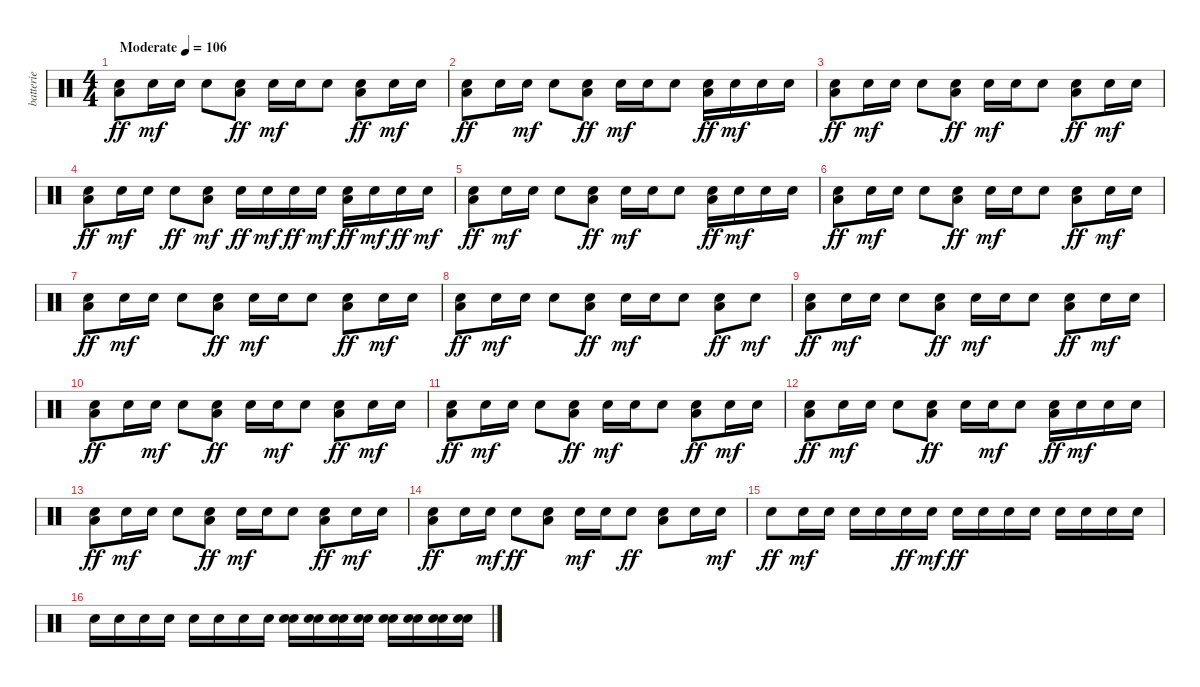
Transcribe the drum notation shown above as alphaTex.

\track ("batterie" "batterie") {instrument percussion}
\staff {score}
\articulation defaults
\ts (4 4)
\tempo (106 "Moderate")
\clef neutral
\ks c
("Electric Snare (hit)" "Low Floor Tom (hit)").8{dy ff} "Electric Snare (hit)".16{dy mf} "Electric Snare (hit)".16 "Electric Snare (hit)".8 ("Electric Snare (hit)" "Low Floor Tom (hit)").8{dy ff} "Electric Snare (hit)".16{dy mf} "Electric Snare (hit)".16 "Electric Snare (hit)".8 ("Electric Snare (hit)" "Low Floor Tom (hit)").8{dy ff} "Electric Snare (hit)".16{dy mf} "Electric Snare (hit)".16 |
("Electric Snare (hit)" "Low Floor Tom (hit)").8{dy ff} "Electric Snare (hit)".16 "Electric Snare (hit)".16{dy mf} "Electric Snare (hit)".8 ("Electric Snare (hit)" "Low Floor Tom (hit)").8{dy ff} "Electric Snare (hit)".16{dy mf} "Electric Snare (hit)".16 "Electric Snare (hit)".8 ("Electric Snare (hit)" "Low Floor Tom (hit)").16{dy ff} "Electric Snare (hit)".16{dy mf} "Electric Snare (hit)".16 "Electric Snare (hit)".16 |
("Electric Snare (hit)" "Low Floor Tom (hit)").8{dy ff} "Electric Snare (hit)".16{dy mf} "Electric Snare (hit)".16 "Electric Snare (hit)".8 ("Electric Snare (hit)" "Low Floor Tom (hit)").8{dy ff} "Electric Snare (hit)".16{dy mf} "Electric Snare (hit)".16 "Electric Snare (hit)".8 ("Electric Snare (hit)" "Low Floor Tom (hit)").8{dy ff} "Electric Snare (hit)".16{dy mf} "Electric Snare (hit)".16 |
("Electric Snare (hit)" "Low Floor Tom (hit)").8{dy ff} "Electric Snare (hit)".16{dy mf} "Electric Snare (hit)".16 "Electric Snare (hit)".8{dy ff} ("Electric Snare (hit)" "Low Floor Tom (hit)").8{dy mf} "Electric Snare (hit)".16{dy ff} "Electric Snare (hit)".16{dy mf} "Electric Snare (hit)".16{dy ff} "Electric Snare (hit)".16{dy mf} ("Electric Snare (hit)" "Low Floor Tom (hit)").16{dy ff} "Electric Snare (hit)".16{dy mf} "Electric Snare (hit)".16{dy ff} "Electric Snare (hit)".16{dy mf} |
("Electric Snare (hit)" "Low Floor Tom (hit)").8{dy ff} "Electric Snare (hit)".16{dy mf} "Electric Snare (hit)".16 "Electric Snare (hit)".8 ("Electric Snare (hit)" "Low Floor Tom (hit)").8{dy ff} "Electric Snare (hit)".16{dy mf} "Electric Snare (hit)".16 "Electric Snare (hit)".8 ("Electric Snare (hit)" "Low Floor Tom (hit)").16{dy ff} "Electric Snare (hit)".16{dy mf} "Electric Snare (hit)".16 "Electric Snare (hit)".16 |
("Electric Snare (hit)" "Low Floor Tom (hit)").8{dy ff} "Electric Snare (hit)".16{dy mf} "Electric Snare (hit)".16 "Electric Snare (hit)".8 ("Electric Snare (hit)" "Low Floor Tom (hit)").8{dy ff} "Electric Snare (hit)".16{dy mf} "Electric Snare (hit)".16 "Electric Snare (hit)".8 ("Electric Snare (hit)" "Low Floor Tom (hit)").8{dy ff} "Electric Snare (hit)".16{dy mf} "Electric Snare (hit)".16 |
("Electric Snare (hit)" "Low Floor Tom (hit)").8{dy ff} "Electric Snare (hit)".16{dy mf} "Electric Snare (hit)".16 "Electric Snare (hit)".8 ("Electric Snare (hit)" "Low Floor Tom (hit)").8{dy ff} "Electric Snare (hit)".16{dy mf} "Electric Snare (hit)".16 "Electric Snare (hit)".8 ("Electric Snare (hit)" "Low Floor Tom (hit)").8{dy ff} "Electric Snare (hit)".16{dy mf} "Electric Snare (hit)".16 |
("Electric Snare (hit)" "Low Floor Tom (hit)").8{dy ff} "Electric Snare (hit)".16{dy mf} "Electric Snare (hit)".16 "Electric Snare (hit)".8 ("Electric Snare (hit)" "Low Floor Tom (hit)").8{dy ff} "Electric Snare (hit)".16{dy mf} "Electric Snare (hit)".16 "Electric Snare (hit)".8 ("Electric Snare (hit)" "Low Floor Tom (hit)").8{dy ff} "Electric Snare (hit)".8{dy mf} |
("Electric Snare (hit)" "Low Floor Tom (hit)").8{dy ff} "Electric Snare (hit)".16{dy mf} "Electric Snare (hit)".16 "Electric Snare (hit)".8 ("Electric Snare (hit)" "Low Floor Tom (hit)").8{dy ff} "Electric Snare (hit)".16{dy mf} "Electric Snare (hit)".16 "Electric Snare (hit)".8 ("Electric Snare (hit)" "Low Floor Tom (hit)").8{dy ff} "Electric Snare (hit)".16{dy mf} "Electric Snare (hit)".16 |
("Electric Snare (hit)" "Low Floor Tom (hit)").8{dy ff} "Electric Snare (hit)".16 "Electric Snare (hit)".16{dy mf} "Electric Snare (hit)".8 ("Electric Snare (hit)" "Low Floor Tom (hit)").8{dy ff} "Electric Snare (hit)".16 "Electric Snare (hit)".16{dy mf} "Electric Snare (hit)".8 ("Electric Snare (hit)" "Low Floor Tom (hit)").8{dy ff} "Electric Snare (hit)".16{dy mf} "Electric Snare (hit)".16 |
("Electric Snare (hit)" "Low Floor Tom (hit)").8{dy ff} "Electric Snare (hit)".16{dy mf} "Electric Snare (hit)".16 "Electric Snare (hit)".8 ("Electric Snare (hit)" "Low Floor Tom (hit)").8{dy ff} "Electric Snare (hit)".16{dy mf} "Electric Snare (hit)".16 "Electric Snare (hit)".8 ("Electric Snare (hit)" "Low Floor Tom (hit)").8{dy ff} "Electric Snare (hit)".16{dy mf} "Electric Snare (hit)".16 |
("Electric Snare (hit)" "Low Floor Tom (hit)").8{dy ff} "Electric Snare (hit)".16{dy mf} "Electric Snare (hit)".16 "Electric Snare (hit)".8 ("Electric Snare (hit)" "Low Floor Tom (hit)").8{dy ff} "Electric Snare (hit)".16 "Electric Snare (hit)".16{dy mf} "Electric Snare (hit)".8 ("Electric Snare (hit)" "Low Floor Tom (hit)").16{dy ff} "Electric Snare (hit)".16{dy mf} "Electric Snare (hit)".16 "Electric Snare (hit)".16 |
("Electric Snare (hit)" "Low Floor Tom (hit)").8{dy ff} "Electric Snare (hit)".16{dy mf} "Electric Snare (hit)".16 "Electric Snare (hit)".8 ("Electric Snare (hit)" "Low Floor Tom (hit)").8{dy ff} "Electric Snare (hit)".16{dy mf} "Electric Snare (hit)".16 "Electric Snare (hit)".8 ("Electric Snare (hit)" "Low Floor Tom (hit)").8{dy ff} "Electric Snare (hit)".16{dy mf} "Electric Snare (hit)".16 |
("Electric Snare (hit)" "Low Floor Tom (hit)").8{dy ff} "Electric Snare (hit)".16 "Electric Snare (hit)".16{dy mf} "Electric Snare (hit)".8{dy ff} ("Electric Snare (hit)" "Low Floor Tom (hit)").8 "Electric Snare (hit)".16{dy mf} "Electric Snare (hit)".16 "Electric Snare (hit)".8{dy ff} ("Electric Snare (hit)" "Low Floor Tom (hit)").8 "Electric Snare (hit)".16 "Electric Snare (hit)".16{dy mf} |
"Electric Snare (hit)".8{dy ff} "Electric Snare (hit)".16{dy mf} "Electric Snare (hit)".16 "Electric Snare (hit)".16 "Electric Snare (hit)".16 "Electric Snare (hit)".16{dy ff} "Electric Snare (hit)".16{dy mf} "Electric Snare (hit)".16{dy ff volume 5} "Electric Snare (hit)".16{volume 6} "Electric Snare (hit)".16{volume 8} "Electric Snare (hit)".16{volume 9} "Electric Snare (hit)".16{volume 10} "Electric Snare (hit)".16{volume 12} "Electric Snare (hit)".16{volume 13} "Electric Snare (hit)".16{volume 14} |
"Electric Snare (hit)".16{volume 16} "Electric Snare (hit)".16 "Electric Snare (hit)".16 "Electric Snare (hit)".16 "Electric Snare (hit)".16 "Electric Snare (hit)".16 "Electric Snare (hit)".16 "Electric Snare (hit)".16 ("Electric Snare (hit)" "Electric Snare (hit)").16 ("Electric Snare (hit)" "Electric Snare (hit)").16 ("Electric Snare (hit)" "Electric Snare (hit)").16 ("Electric Snare (hit)" "Electric Snare (hit)").16 ("Electric Snare (hit)" "Electric Snare (hit)").16 ("Electric Snare (hit)" "Electric Snare (hit)").16 ("Electric Snare (hit)" "Electric Snare (hit)").16 ("Electric Snare (hit)" "Electric Snare (hit)").16
